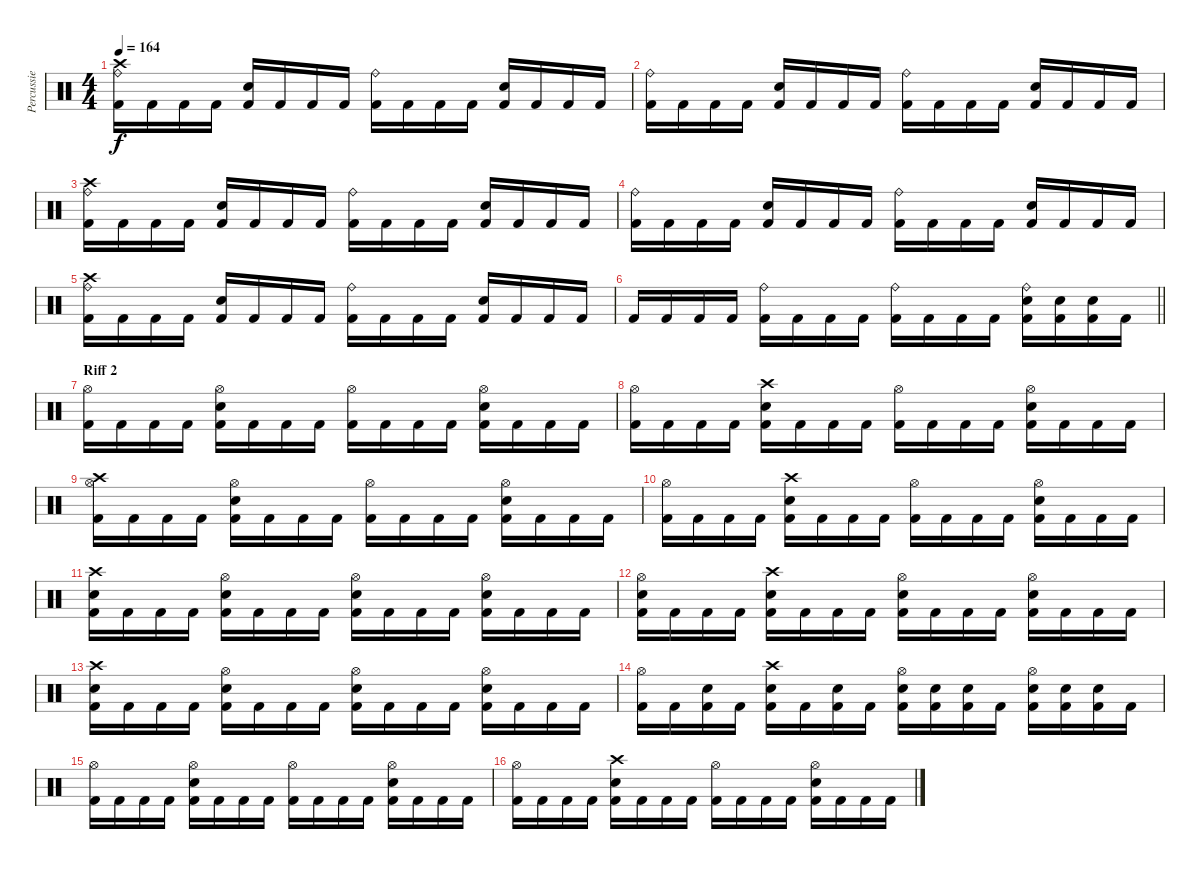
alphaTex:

\track ("Percussie" "Percussie") {instrument percussion}
\staff {score}
\articulation defaults
\ts (4 4)
\tempo 164
\clef neutral
\ks c
("Ride (bell)" "Crash high (hit)" "Kick (hit) 2").16{dy f} "Kick (hit) 2".16 "Kick (hit) 2".16 "Kick (hit) 2".16 ("Electric Snare (hit)" "Kick (hit) 2").16 "Kick (hit) 2".16 "Kick (hit) 2".16 "Kick (hit) 2".16 ("Ride (bell)" "Kick (hit) 2").16 "Kick (hit) 2".16 "Kick (hit) 2".16 "Kick (hit) 2".16 ("Electric Snare (hit)" "Kick (hit) 2").16 "Kick (hit) 2".16 "Kick (hit) 2".16 "Kick (hit) 2".16 |
("Ride (bell)" "Kick (hit) 2").16 "Kick (hit) 2".16 "Kick (hit) 2".16 "Kick (hit) 2".16 ("Electric Snare (hit)" "Kick (hit) 2").16 "Kick (hit) 2".16 "Kick (hit) 2".16 "Kick (hit) 2".16 ("Ride (bell)" "Kick (hit) 2").16 "Kick (hit) 2".16 "Kick (hit) 2".16 "Kick (hit) 2".16 ("Electric Snare (hit)" "Kick (hit) 2").16 "Kick (hit) 2".16 "Kick (hit) 2".16 "Kick (hit) 2".16 |
("Ride (bell)" "Crash high (hit)" "Kick (hit) 2").16 "Kick (hit) 2".16 "Kick (hit) 2".16 "Kick (hit) 2".16 ("Electric Snare (hit)" "Kick (hit) 2").16 "Kick (hit) 2".16 "Kick (hit) 2".16 "Kick (hit) 2".16 ("Ride (bell)" "Kick (hit) 2").16 "Kick (hit) 2".16 "Kick (hit) 2".16 "Kick (hit) 2".16 ("Electric Snare (hit)" "Kick (hit) 2").16 "Kick (hit) 2".16 "Kick (hit) 2".16 "Kick (hit) 2".16 |
("Ride (bell)" "Kick (hit) 2").16 "Kick (hit) 2".16 "Kick (hit) 2".16 "Kick (hit) 2".16 ("Electric Snare (hit)" "Kick (hit) 2").16 "Kick (hit) 2".16 "Kick (hit) 2".16 "Kick (hit) 2".16 ("Ride (bell)" "Kick (hit) 2").16 "Kick (hit) 2".16 "Kick (hit) 2".16 "Kick (hit) 2".16 ("Electric Snare (hit)" "Kick (hit) 2").16 "Kick (hit) 2".16 "Kick (hit) 2".16 "Kick (hit) 2".16 |
("Ride (bell)" "Crash high (hit)" "Kick (hit) 2").16 "Kick (hit) 2".16 "Kick (hit) 2".16 "Kick (hit) 2".16 ("Electric Snare (hit)" "Kick (hit) 2").16 "Kick (hit) 2".16 "Kick (hit) 2".16 "Kick (hit) 2".16 ("Ride (bell)" "Kick (hit) 2").16 "Kick (hit) 2".16 "Kick (hit) 2".16 "Kick (hit) 2".16 ("Electric Snare (hit)" "Kick (hit) 2").16 "Kick (hit) 2".16 "Kick (hit) 2".16 "Kick (hit) 2".16 |
\barLineRight lightlight "Kick (hit) 2".16 "Kick (hit) 2".16 "Kick (hit) 2".16 "Kick (hit) 2".16
("Ride (bell)" "Kick (hit) 2").16 "Kick (hit) 2".16 "Kick (hit) 2".16 "Kick (hit) 2".16 ("Ride (bell)" "Kick (hit) 2").16 "Kick (hit) 2".16 "Kick (hit) 2".16 "Kick (hit) 2".16 ("Ride (bell)" "Electric Snare (hit)" "Kick (hit) 2").16 ("Electric Snare (hit)" "Kick (hit) 2").16 ("Electric Snare (hit)" "Kick (hit) 2").16 "Kick (hit) 2".16 |
\section ("" "Riff 2")
("Hi-Hat (open)" "Kick (hit) 2").16 "Kick (hit) 2".16 "Kick (hit) 2".16 "Kick (hit) 2".16 ("Hi-Hat (open)" "Electric Snare (hit)" "Kick (hit) 2").16 "Kick (hit) 2".16 "Kick (hit) 2".16 "Kick (hit) 2".16 ("Hi-Hat (open)" "Kick (hit) 2").16 "Kick (hit) 2".16 "Kick (hit) 2".16 "Kick (hit) 2".16 ("Hi-Hat (open)" "Electric Snare (hit)" "Kick (hit) 2").16 "Kick (hit) 2".16 "Kick (hit) 2".16 "Kick (hit) 2".16 |
("Hi-Hat (open)" "Kick (hit) 2").16 "Kick (hit) 2".16 "Kick (hit) 2".16 "Kick (hit) 2".16 ("Crash high (hit)" "Electric Snare (hit)" "Kick (hit) 2").16 "Kick (hit) 2".16 "Kick (hit) 2".16 "Kick (hit) 2".16 ("Hi-Hat (open)" "Kick (hit) 2").16 "Kick (hit) 2".16 "Kick (hit) 2".16 "Kick (hit) 2".16 ("Hi-Hat (open)" "Electric Snare (hit)" "Kick (hit) 2").16 "Kick (hit) 2".16 "Kick (hit) 2".16 "Kick (hit) 2".16 |
("Hi-Hat (open)" "Crash high (hit)" "Kick (hit) 2").16 "Kick (hit) 2".16 "Kick (hit) 2".16 "Kick (hit) 2".16 ("Hi-Hat (open)" "Electric Snare (hit)" "Kick (hit) 2").16 "Kick (hit) 2".16 "Kick (hit) 2".16 "Kick (hit) 2".16 ("Hi-Hat (open)" "Kick (hit) 2").16 "Kick (hit) 2".16 "Kick (hit) 2".16 "Kick (hit) 2".16 ("Hi-Hat (open)" "Electric Snare (hit)" "Kick (hit) 2").16 "Kick (hit) 2".16 "Kick (hit) 2".16 "Kick (hit) 2".16 |
("Hi-Hat (open)" "Kick (hit) 2").16 "Kick (hit) 2".16 "Kick (hit) 2".16 "Kick (hit) 2".16 ("Crash high (hit)" "Electric Snare (hit)" "Kick (hit) 2").16 "Kick (hit) 2".16 "Kick (hit) 2".16 "Kick (hit) 2".16 ("Hi-Hat (open)" "Kick (hit) 2").16 "Kick (hit) 2".16 "Kick (hit) 2".16 "Kick (hit) 2".16 ("Hi-Hat (open)" "Electric Snare (hit)" "Kick (hit) 2").16 "Kick (hit) 2".16 "Kick (hit) 2".16 "Kick (hit) 2".16 |
("Crash high (hit)" "Electric Snare (hit)" "Kick (hit) 2").16 "Kick (hit) 2".16 "Kick (hit) 2".16 "Kick (hit) 2".16 ("Hi-Hat (open)" "Electric Snare (hit)" "Kick (hit) 2").16 "Kick (hit) 2".16 "Kick (hit) 2".16 "Kick (hit) 2".16 ("Hi-Hat (open)" "Electric Snare (hit)" "Kick (hit) 2").16 "Kick (hit) 2".16 "Kick (hit) 2".16 "Kick (hit) 2".16 ("Hi-Hat (open)" "Electric Snare (hit)" "Kick (hit) 2").16 "Kick (hit) 2".16 "Kick (hit) 2".16 "Kick (hit) 2".16 |
("Hi-Hat (open)" "Electric Snare (hit)" "Kick (hit) 2").16 "Kick (hit) 2".16 "Kick (hit) 2".16 "Kick (hit) 2".16 ("Crash high (hit)" "Electric Snare (hit)" "Kick (hit) 2").16 "Kick (hit) 2".16 "Kick (hit) 2".16 "Kick (hit) 2".16 ("Hi-Hat (open)" "Electric Snare (hit)" "Kick (hit) 2").16 "Kick (hit) 2".16 "Kick (hit) 2".16 "Kick (hit) 2".16 ("Hi-Hat (open)" "Electric Snare (hit)" "Kick (hit) 2").16 "Kick (hit) 2".16 "Kick (hit) 2".16 "Kick (hit) 2".16 |
("Crash high (hit)" "Electric Snare (hit)" "Kick (hit) 2").16 "Kick (hit) 2".16 "Kick (hit) 2".16 "Kick (hit) 2".16 ("Hi-Hat (open)" "Electric Snare (hit)" "Kick (hit) 2").16 "Kick (hit) 2".16 "Kick (hit) 2".16 "Kick (hit) 2".16 ("Hi-Hat (open)" "Electric Snare (hit)" "Kick (hit) 2").16 "Kick (hit) 2".16 "Kick (hit) 2".16 "Kick (hit) 2".16 ("Hi-Hat (open)" "Electric Snare (hit)" "Kick (hit) 2").16 "Kick (hit) 2".16 "Kick (hit) 2".16 "Kick (hit) 2".16 |
("Hi-Hat (open)" "Kick (hit) 2").16 "Kick (hit) 2".16 ("Electric Snare (hit)" "Kick (hit) 2").16 "Kick (hit) 2".16 ("Crash high (hit)" "Electric Snare (hit)" "Kick (hit) 2").16 "Kick (hit) 2".16 ("Electric Snare (hit)" "Kick (hit) 2").16 "Kick (hit) 2".16 ("Hi-Hat (open)" "Electric Snare (hit)" "Kick (hit) 2").16 ("Electric Snare (hit)" "Kick (hit) 2").16 ("Electric Snare (hit)" "Kick (hit) 2").16 "Kick (hit) 2".16 ("Hi-Hat (open)" "Electric Snare (hit)" "Kick (hit) 2").16 ("Electric Snare (hit)" "Kick (hit) 2").16 ("Electric Snare (hit)" "Kick (hit) 2").16 "Kick (hit) 2".16 |
("Hi-Hat (open)" "Kick (hit) 2").16 "Kick (hit) 2".16 "Kick (hit) 2".16 "Kick (hit) 2".16 ("Hi-Hat (open)" "Electric Snare (hit)" "Kick (hit) 2").16 "Kick (hit) 2".16 "Kick (hit) 2".16 "Kick (hit) 2".16 ("Hi-Hat (open)" "Kick (hit) 2").16 "Kick (hit) 2".16 "Kick (hit) 2".16 "Kick (hit) 2".16 ("Hi-Hat (open)" "Electric Snare (hit)" "Kick (hit) 2").16 "Kick (hit) 2".16 "Kick (hit) 2".16 "Kick (hit) 2".16 |
("Hi-Hat (open)" "Kick (hit) 2").16 "Kick (hit) 2".16 "Kick (hit) 2".16 "Kick (hit) 2".16 ("Crash high (hit)" "Electric Snare (hit)" "Kick (hit) 2").16 "Kick (hit) 2".16 "Kick (hit) 2".16 "Kick (hit) 2".16 ("Hi-Hat (open)" "Kick (hit) 2").16 "Kick (hit) 2".16 "Kick (hit) 2".16 "Kick (hit) 2".16 ("Hi-Hat (open)" "Electric Snare (hit)" "Kick (hit) 2").16 "Kick (hit) 2".16 "Kick (hit) 2".16 "Kick (hit) 2".16
